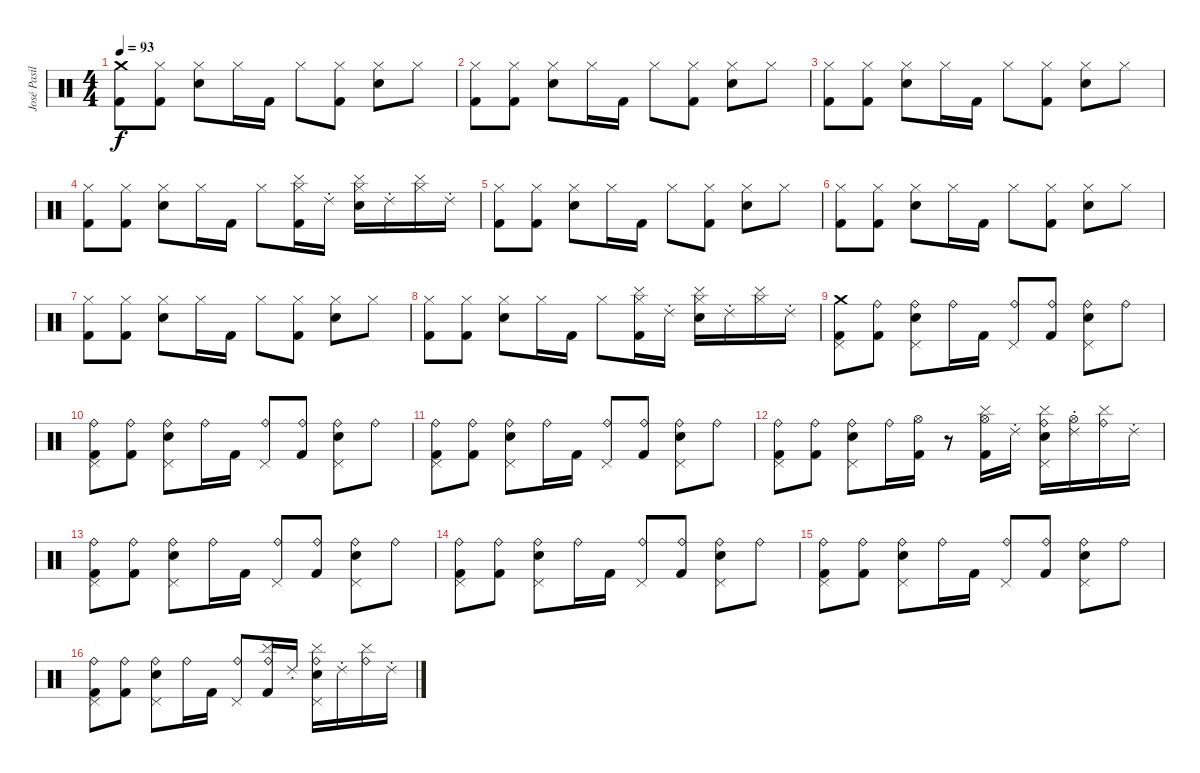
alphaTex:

\track ("José Pasillas/DJ Kilmore" "José Pasil") {instrument percussion}
\staff {score}
\articulation defaults
\ts (4 4)
\tempo 93
\clef neutral
\ks c
("Crash medium (hit)" "Kick (hit) 2").8{dy f} ("Hi-Hat (closed)" "Kick (hit) 2").8 ("Hi-Hat (closed)" "Electric Snare (hit)").8 "Hi-Hat (closed)".16 "Kick (hit) 2".16 "Hi-Hat (closed)".8 ("Hi-Hat (closed)" "Kick (hit) 2").8 ("Hi-Hat (closed)" "Electric Snare (hit)").8 "Hi-Hat (closed)".8 |
("Hi-Hat (closed)" "Kick (hit) 2").8 ("Hi-Hat (closed)" "Kick (hit) 2").8 ("Hi-Hat (closed)" "Electric Snare (hit)").8 "Hi-Hat (closed)".16 "Kick (hit) 2".16 "Hi-Hat (closed)".8 ("Hi-Hat (closed)" "Kick (hit) 2").8 ("Hi-Hat (closed)" "Electric Snare (hit)").8 "Hi-Hat (closed)".8 |
("Hi-Hat (closed)" "Kick (hit) 2").8 ("Hi-Hat (closed)" "Kick (hit) 2").8 ("Hi-Hat (closed)" "Electric Snare (hit)").8 "Hi-Hat (closed)".16 "Kick (hit) 2".16 "Hi-Hat (closed)".8 ("Hi-Hat (closed)" "Kick (hit) 2").8 ("Hi-Hat (closed)" "Electric Snare (hit)").8 "Hi-Hat (closed)".8 |
("Hi-Hat (closed)" "Kick (hit) 2").8 ("Hi-Hat (closed)" "Kick (hit) 2").8 ("Hi-Hat (closed)" "Electric Snare (hit)").8 "Hi-Hat (closed)".16 "Kick (hit) 2".16 "Hi-Hat (closed)".8 ("Hi-Hat (closed)" "Cymbal (hit)" "Kick (hit) 2").16 "Ride (choke) 2".16 ("Hi-Hat (closed)" "Cymbal (hit)" "Electric Snare (hit)").16 "Ride (choke) 2".16 ("Hi-Hat (closed)" "Cymbal (hit)").16 "Ride (choke) 2".16 |
("Hi-Hat (closed)" "Kick (hit) 2").8 ("Hi-Hat (closed)" "Kick (hit) 2").8 ("Hi-Hat (closed)" "Electric Snare (hit)").8 "Hi-Hat (closed)".16 "Kick (hit) 2".16 "Hi-Hat (closed)".8 ("Hi-Hat (closed)" "Kick (hit) 2").8 ("Hi-Hat (closed)" "Electric Snare (hit)").8 "Hi-Hat (closed)".8 |
("Hi-Hat (closed)" "Kick (hit) 2").8 ("Hi-Hat (closed)" "Kick (hit) 2").8 ("Hi-Hat (closed)" "Electric Snare (hit)").8 "Hi-Hat (closed)".16 "Kick (hit) 2".16 "Hi-Hat (closed)".8 ("Hi-Hat (closed)" "Kick (hit) 2").8 ("Hi-Hat (closed)" "Electric Snare (hit)").8 "Hi-Hat (closed)".8 |
("Hi-Hat (closed)" "Kick (hit) 2").8 ("Hi-Hat (closed)" "Kick (hit) 2").8 ("Hi-Hat (closed)" "Electric Snare (hit)").8 "Hi-Hat (closed)".16 "Kick (hit) 2".16 "Hi-Hat (closed)".8 ("Hi-Hat (closed)" "Kick (hit) 2").8 ("Hi-Hat (closed)" "Electric Snare (hit)").8 "Hi-Hat (closed)".8 |
("Hi-Hat (closed)" "Kick (hit) 2").8 ("Hi-Hat (closed)" "Kick (hit) 2").8 ("Hi-Hat (closed)" "Electric Snare (hit)").8 "Hi-Hat (closed)".16 "Kick (hit) 2".16 "Hi-Hat (closed)".8 ("Hi-Hat (closed)" "Cymbal (hit)" "Kick (hit) 2").16 "Ride (choke) 2".16 ("Hi-Hat (closed)" "Cymbal (hit)" "Electric Snare (hit)").16 "Ride (choke) 2".16 ("Hi-Hat (closed)" "Cymbal (hit)").16 "Ride (choke) 2".16 |
("Crash medium (hit)" "Kick (hit) 2" "Pedal Hi-Hat (hit)").8 ("Ride (bell)" "Kick (hit) 2").8 ("Ride (bell)" "Electric Snare (hit)" "Pedal Hi-Hat (hit)").8 "Ride (bell)".16 "Kick (hit) 2".16 ("Ride (bell)" "Pedal Hi-Hat (hit)").8 ("Ride (bell)" "Kick (hit) 2").8 ("Ride (bell)" "Electric Snare (hit)" "Pedal Hi-Hat (hit)").8 "Ride (bell)".8 |
("Ride (bell)" "Kick (hit) 2" "Pedal Hi-Hat (hit)").8 ("Ride (bell)" "Kick (hit) 2").8 ("Ride (bell)" "Electric Snare (hit)" "Pedal Hi-Hat (hit)").8 "Ride (bell)".16 "Kick (hit) 2".16 ("Ride (bell)" "Pedal Hi-Hat (hit)").8 ("Ride (bell)" "Kick (hit) 2").8 ("Ride (bell)" "Electric Snare (hit)" "Pedal Hi-Hat (hit)").8 "Ride (bell)".8 |
("Ride (bell)" "Kick (hit) 2" "Pedal Hi-Hat (hit)").8 ("Ride (bell)" "Kick (hit) 2").8 ("Ride (bell)" "Electric Snare (hit)" "Pedal Hi-Hat (hit)").8 "Ride (bell)".16 "Kick (hit) 2".16 ("Ride (bell)" "Pedal Hi-Hat (hit)").8 ("Ride (bell)" "Kick (hit) 2").8 ("Ride (bell)" "Electric Snare (hit)" "Pedal Hi-Hat (hit)").8 "Ride (bell)".8 |
("Ride (bell)" "Kick (hit) 2" "Pedal Hi-Hat (hit)").8 ("Ride (bell)" "Kick (hit) 2").8 ("Ride (bell)" "Electric Snare (hit)" "Pedal Hi-Hat (hit)").8 "Ride (bell)".16 ("Hi-Hat (open)" "Kick (hit) 2").16 r.8 ("Hi-Hat (open)" "Cymbal (hit)" "Kick (hit) 2").16 "Ride (choke) 2".16 ("Ride (bell)" "Cymbal (hit)" "Electric Snare (hit)" "Pedal Hi-Hat (hit)").16 ("Hi-Hat (open)" "Ride (choke) 2").16 ("Ride (bell)" "Cymbal (hit)").16 "Ride (choke) 2".16 |
("Ride (bell)" "Kick (hit) 2" "Pedal Hi-Hat (hit)").8 ("Ride (bell)" "Kick (hit) 2").8 ("Ride (bell)" "Electric Snare (hit)" "Pedal Hi-Hat (hit)").8 "Ride (bell)".16 "Kick (hit) 2".16 ("Ride (bell)" "Pedal Hi-Hat (hit)").8 ("Ride (bell)" "Kick (hit) 2").8 ("Ride (bell)" "Electric Snare (hit)" "Pedal Hi-Hat (hit)").8 "Ride (bell)".8 |
("Ride (bell)" "Kick (hit) 2" "Pedal Hi-Hat (hit)").8 ("Ride (bell)" "Kick (hit) 2").8 ("Ride (bell)" "Electric Snare (hit)" "Pedal Hi-Hat (hit)").8 "Ride (bell)".16 "Kick (hit) 2".16 ("Ride (bell)" "Pedal Hi-Hat (hit)").8 ("Ride (bell)" "Kick (hit) 2").8 ("Ride (bell)" "Electric Snare (hit)" "Pedal Hi-Hat (hit)").8 "Ride (bell)".8 |
("Ride (bell)" "Kick (hit) 2" "Pedal Hi-Hat (hit)").8 ("Ride (bell)" "Kick (hit) 2").8 ("Ride (bell)" "Electric Snare (hit)" "Pedal Hi-Hat (hit)").8 "Ride (bell)".16 "Kick (hit) 2".16 ("Ride (bell)" "Pedal Hi-Hat (hit)").8 ("Ride (bell)" "Kick (hit) 2").8 ("Ride (bell)" "Electric Snare (hit)" "Pedal Hi-Hat (hit)").8 "Ride (bell)".8 |
("Ride (bell)" "Kick (hit) 2" "Pedal Hi-Hat (hit)").8 ("Ride (bell)" "Kick (hit) 2").8 ("Ride (bell)" "Electric Snare (hit)" "Pedal Hi-Hat (hit)").8 "Ride (bell)".16 "Kick (hit) 2".16 ("Ride (bell)" "Pedal Hi-Hat (hit)").8 ("Ride (bell)" "Cymbal (hit)" "Kick (hit) 2").16 "Ride (choke) 2".16 ("Ride (bell)" "Cymbal (hit)" "Electric Snare (hit)" "Pedal Hi-Hat (hit)").16 "Ride (choke) 2".16 ("Ride (bell)" "Cymbal (hit)").16 "Ride (choke) 2".16
